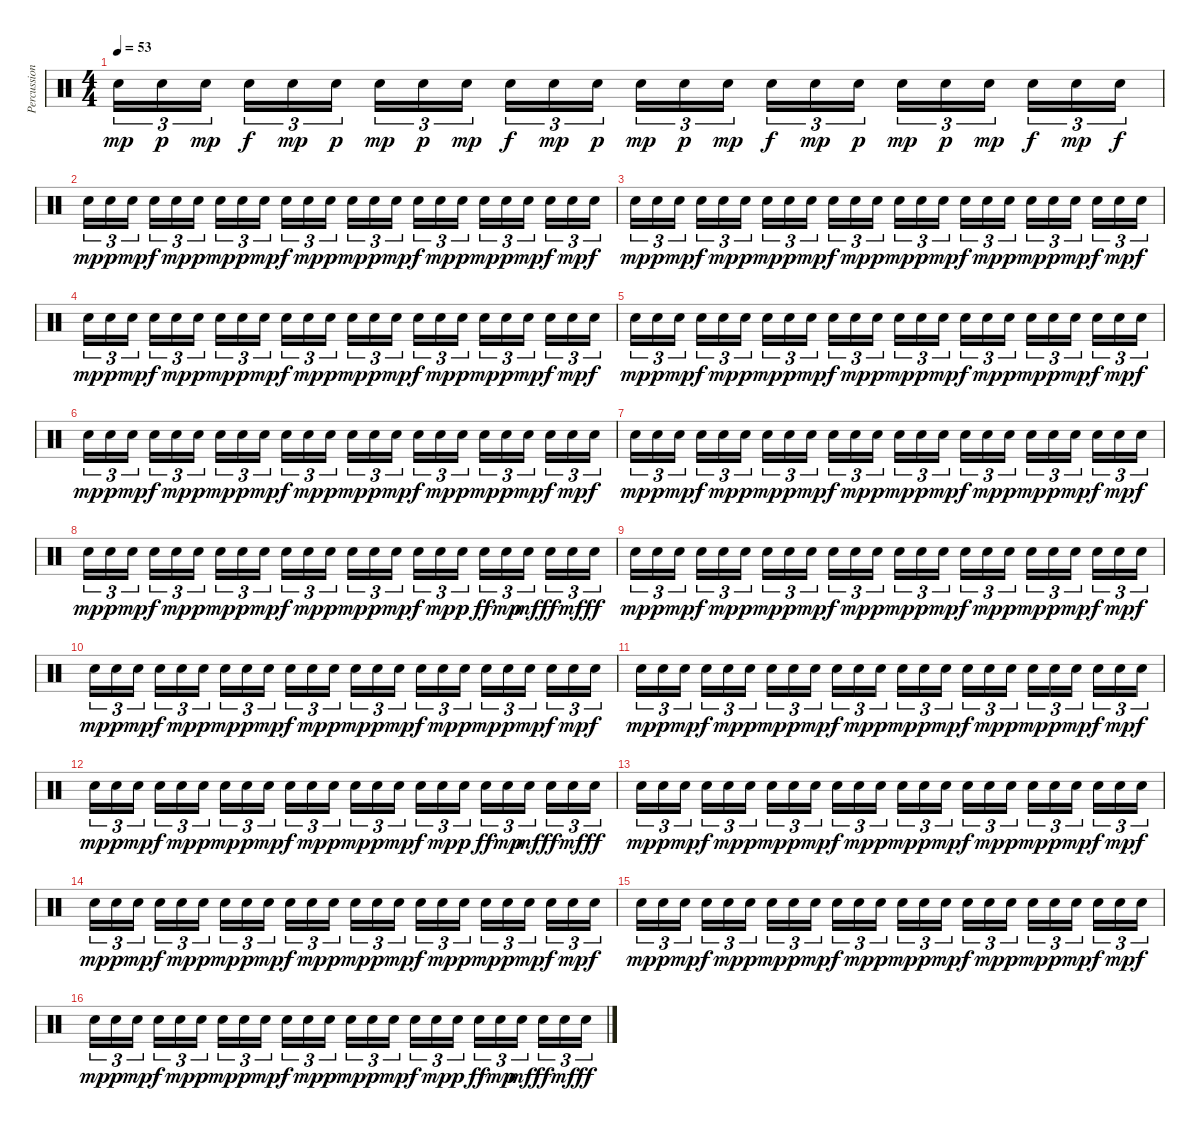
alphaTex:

\track ("Percussions" "Percussion") {instrument percussion}
\staff {score}
\articulation defaults
\ts (4 4)
\tempo 53
\clef neutral
\ks c "Snare (hit) 2".16{tu (3 2) dy mp} "Snare (hit) 2".16{tu (3 2) dy p} "Snare (hit) 2".16{tu (3 2) dy mp} "Snare (hit) 2".16{tu (3 2) dy f} "Snare (hit) 2".16{tu (3 2) dy mp} "Snare (hit) 2".16{tu (3 2) dy p} "Snare (hit) 2".16{tu (3 2) dy mp} "Snare (hit) 2".16{tu (3 2) dy p} "Snare (hit) 2".16{tu (3 2) dy mp} "Snare (hit) 2".16{tu (3 2) dy f} "Snare (hit) 2".16{tu (3 2) dy mp} "Snare (hit) 2".16{tu (3 2) dy p} "Snare (hit) 2".16{tu (3 2) dy mp} "Snare (hit) 2".16{tu (3 2) dy p} "Snare (hit) 2".16{tu (3 2) dy mp} "Snare (hit) 2".16{tu (3 2) dy f} "Snare (hit) 2".16{tu (3 2) dy mp} "Snare (hit) 2".16{tu (3 2) dy p} "Snare (hit) 2".16{tu (3 2) dy mp} "Snare (hit) 2".16{tu (3 2) dy p} "Snare (hit) 2".16{tu (3 2) dy mp} "Snare (hit) 2".16{tu (3 2) dy f} "Snare (hit) 2".16{tu (3 2) dy mp} "Snare (hit) 2".16{tu (3 2) dy f}
|
"Snare (hit) 2".16{tu (3 2) dy mp} "Snare (hit) 2".16{tu (3 2) dy p} "Snare (hit) 2".16{tu (3 2) dy mp} "Snare (hit) 2".16{tu (3 2) dy f} "Snare (hit) 2".16{tu (3 2) dy mp} "Snare (hit) 2".16{tu (3 2) dy p} "Snare (hit) 2".16{tu (3 2) dy mp} "Snare (hit) 2".16{tu (3 2) dy p} "Snare (hit) 2".16{tu (3 2) dy mp} "Snare (hit) 2".16{tu (3 2) dy f} "Snare (hit) 2".16{tu (3 2) dy mp} "Snare (hit) 2".16{tu (3 2) dy p} "Snare (hit) 2".16{tu (3 2) dy mp} "Snare (hit) 2".16{tu (3 2) dy p} "Snare (hit) 2".16{tu (3 2) dy mp} "Snare (hit) 2".16{tu (3 2) dy f} "Snare (hit) 2".16{tu (3 2) dy mp} "Snare (hit) 2".16{tu (3 2) dy p} "Snare (hit) 2".16{tu (3 2) dy mp} "Snare (hit) 2".16{tu (3 2) dy p} "Snare (hit) 2".16{tu (3 2) dy mp} "Snare (hit) 2".16{tu (3 2) dy f} "Snare (hit) 2".16{tu (3 2) dy mp} "Snare (hit) 2".16{tu (3 2) dy f} |
"Snare (hit) 2".16{tu (3 2) dy mp} "Snare (hit) 2".16{tu (3 2) dy p} "Snare (hit) 2".16{tu (3 2) dy mp} "Snare (hit) 2".16{tu (3 2) dy f} "Snare (hit) 2".16{tu (3 2) dy mp} "Snare (hit) 2".16{tu (3 2) dy p} "Snare (hit) 2".16{tu (3 2) dy mp} "Snare (hit) 2".16{tu (3 2) dy p} "Snare (hit) 2".16{tu (3 2) dy mp} "Snare (hit) 2".16{tu (3 2) dy f} "Snare (hit) 2".16{tu (3 2) dy mp} "Snare (hit) 2".16{tu (3 2) dy p} "Snare (hit) 2".16{tu (3 2) dy mp} "Snare (hit) 2".16{tu (3 2) dy p} "Snare (hit) 2".16{tu (3 2) dy mp} "Snare (hit) 2".16{tu (3 2) dy f} "Snare (hit) 2".16{tu (3 2) dy mp} "Snare (hit) 2".16{tu (3 2) dy p} "Snare (hit) 2".16{tu (3 2) dy mp} "Snare (hit) 2".16{tu (3 2) dy p} "Snare (hit) 2".16{tu (3 2) dy mp} "Snare (hit) 2".16{tu (3 2) dy f} "Snare (hit) 2".16{tu (3 2) dy mp} "Snare (hit) 2".16{tu (3 2) dy f} |
"Snare (hit) 2".16{tu (3 2) dy mp} "Snare (hit) 2".16{tu (3 2) dy p} "Snare (hit) 2".16{tu (3 2) dy mp} "Snare (hit) 2".16{tu (3 2) dy f} "Snare (hit) 2".16{tu (3 2) dy mp} "Snare (hit) 2".16{tu (3 2) dy p} "Snare (hit) 2".16{tu (3 2) dy mp} "Snare (hit) 2".16{tu (3 2) dy p} "Snare (hit) 2".16{tu (3 2) dy mp} "Snare (hit) 2".16{tu (3 2) dy f} "Snare (hit) 2".16{tu (3 2) dy mp} "Snare (hit) 2".16{tu (3 2) dy p} "Snare (hit) 2".16{tu (3 2) dy mp} "Snare (hit) 2".16{tu (3 2) dy p} "Snare (hit) 2".16{tu (3 2) dy mp} "Snare (hit) 2".16{tu (3 2) dy f} "Snare (hit) 2".16{tu (3 2) dy mp} "Snare (hit) 2".16{tu (3 2) dy p} "Snare (hit) 2".16{tu (3 2) dy mp} "Snare (hit) 2".16{tu (3 2) dy p} "Snare (hit) 2".16{tu (3 2) dy mp} "Snare (hit) 2".16{tu (3 2) dy f} "Snare (hit) 2".16{tu (3 2) dy mp} "Snare (hit) 2".16{tu (3 2) dy f} |
"Snare (hit) 2".16{tu (3 2) dy mp} "Snare (hit) 2".16{tu (3 2) dy p} "Snare (hit) 2".16{tu (3 2) dy mp} "Snare (hit) 2".16{tu (3 2) dy f} "Snare (hit) 2".16{tu (3 2) dy mp} "Snare (hit) 2".16{tu (3 2) dy p} "Snare (hit) 2".16{tu (3 2) dy mp} "Snare (hit) 2".16{tu (3 2) dy p} "Snare (hit) 2".16{tu (3 2) dy mp} "Snare (hit) 2".16{tu (3 2) dy f} "Snare (hit) 2".16{tu (3 2) dy mp} "Snare (hit) 2".16{tu (3 2) dy p} "Snare (hit) 2".16{tu (3 2) dy mp} "Snare (hit) 2".16{tu (3 2) dy p} "Snare (hit) 2".16{tu (3 2) dy mp} "Snare (hit) 2".16{tu (3 2) dy f} "Snare (hit) 2".16{tu (3 2) dy mp} "Snare (hit) 2".16{tu (3 2) dy p} "Snare (hit) 2".16{tu (3 2) dy mp} "Snare (hit) 2".16{tu (3 2) dy p} "Snare (hit) 2".16{tu (3 2) dy mp} "Snare (hit) 2".16{tu (3 2) dy f} "Snare (hit) 2".16{tu (3 2) dy mp} "Snare (hit) 2".16{tu (3 2) dy f} |
"Snare (hit) 2".16{tu (3 2) dy mp} "Snare (hit) 2".16{tu (3 2) dy p} "Snare (hit) 2".16{tu (3 2) dy mp} "Snare (hit) 2".16{tu (3 2) dy f} "Snare (hit) 2".16{tu (3 2) dy mp} "Snare (hit) 2".16{tu (3 2) dy p} "Snare (hit) 2".16{tu (3 2) dy mp} "Snare (hit) 2".16{tu (3 2) dy p} "Snare (hit) 2".16{tu (3 2) dy mp} "Snare (hit) 2".16{tu (3 2) dy f} "Snare (hit) 2".16{tu (3 2) dy mp} "Snare (hit) 2".16{tu (3 2) dy p} "Snare (hit) 2".16{tu (3 2) dy mp} "Snare (hit) 2".16{tu (3 2) dy p} "Snare (hit) 2".16{tu (3 2) dy mp} "Snare (hit) 2".16{tu (3 2) dy f} "Snare (hit) 2".16{tu (3 2) dy mp} "Snare (hit) 2".16{tu (3 2) dy p} "Snare (hit) 2".16{tu (3 2) dy mp} "Snare (hit) 2".16{tu (3 2) dy p} "Snare (hit) 2".16{tu (3 2) dy mp} "Snare (hit) 2".16{tu (3 2) dy f} "Snare (hit) 2".16{tu (3 2) dy mp} "Snare (hit) 2".16{tu (3 2) dy f} |
"Snare (hit) 2".16{tu (3 2) dy mp} "Snare (hit) 2".16{tu (3 2) dy p} "Snare (hit) 2".16{tu (3 2) dy mp} "Snare (hit) 2".16{tu (3 2) dy f} "Snare (hit) 2".16{tu (3 2) dy mp} "Snare (hit) 2".16{tu (3 2) dy p} "Snare (hit) 2".16{tu (3 2) dy mp} "Snare (hit) 2".16{tu (3 2) dy p} "Snare (hit) 2".16{tu (3 2) dy mp} "Snare (hit) 2".16{tu (3 2) dy f} "Snare (hit) 2".16{tu (3 2) dy mp} "Snare (hit) 2".16{tu (3 2) dy p} "Snare (hit) 2".16{tu (3 2) dy mp} "Snare (hit) 2".16{tu (3 2) dy p} "Snare (hit) 2".16{tu (3 2) dy mp} "Snare (hit) 2".16{tu (3 2) dy f} "Snare (hit) 2".16{tu (3 2) dy mp} "Snare (hit) 2".16{tu (3 2) dy p} "Snare (hit) 2".16{tu (3 2) dy mp} "Snare (hit) 2".16{tu (3 2) dy p} "Snare (hit) 2".16{tu (3 2) dy mp} "Snare (hit) 2".16{tu (3 2) dy f} "Snare (hit) 2".16{tu (3 2) dy mp} "Snare (hit) 2".16{tu (3 2) dy f} |
"Snare (hit) 2".16{tu (3 2) dy mp} "Snare (hit) 2".16{tu (3 2) dy p} "Snare (hit) 2".16{tu (3 2) dy mp} "Snare (hit) 2".16{tu (3 2) dy f} "Snare (hit) 2".16{tu (3 2) dy mp} "Snare (hit) 2".16{tu (3 2) dy p} "Snare (hit) 2".16{tu (3 2) dy mp} "Snare (hit) 2".16{tu (3 2) dy p} "Snare (hit) 2".16{tu (3 2) dy mp} "Snare (hit) 2".16{tu (3 2) dy f} "Snare (hit) 2".16{tu (3 2) dy mp} "Snare (hit) 2".16{tu (3 2) dy p} "Snare (hit) 2".16{tu (3 2) dy mp} "Snare (hit) 2".16{tu (3 2) dy p} "Snare (hit) 2".16{tu (3 2) dy mp} "Snare (hit) 2".16{tu (3 2) dy f} "Snare (hit) 2".16{tu (3 2) dy mp} "Snare (hit) 2".16{tu (3 2) dy p} "Snare (hit) 2".16{tu (3 2) dy ff} "Snare (hit) 2".16{tu (3 2) dy mp} "Snare (hit) 2".16{tu (3 2) dy mf} "Snare (hit) 2".16{tu (3 2) dy ff} "Snare (hit) 2".16{tu (3 2) dy mf} "Snare (hit) 2".16{tu (3 2) dy ff} |
"Snare (hit) 2".16{tu (3 2) dy mp} "Snare (hit) 2".16{tu (3 2) dy p} "Snare (hit) 2".16{tu (3 2) dy mp} "Snare (hit) 2".16{tu (3 2) dy f} "Snare (hit) 2".16{tu (3 2) dy mp} "Snare (hit) 2".16{tu (3 2) dy p} "Snare (hit) 2".16{tu (3 2) dy mp} "Snare (hit) 2".16{tu (3 2) dy p} "Snare (hit) 2".16{tu (3 2) dy mp} "Snare (hit) 2".16{tu (3 2) dy f} "Snare (hit) 2".16{tu (3 2) dy mp} "Snare (hit) 2".16{tu (3 2) dy p} "Snare (hit) 2".16{tu (3 2) dy mp} "Snare (hit) 2".16{tu (3 2) dy p} "Snare (hit) 2".16{tu (3 2) dy mp} "Snare (hit) 2".16{tu (3 2) dy f} "Snare (hit) 2".16{tu (3 2) dy mp} "Snare (hit) 2".16{tu (3 2) dy p} "Snare (hit) 2".16{tu (3 2) dy mp} "Snare (hit) 2".16{tu (3 2) dy p} "Snare (hit) 2".16{tu (3 2) dy mp} "Snare (hit) 2".16{tu (3 2) dy f} "Snare (hit) 2".16{tu (3 2) dy mp} "Snare (hit) 2".16{tu (3 2) dy f} |
"Snare (hit) 2".16{tu (3 2) dy mp} "Snare (hit) 2".16{tu (3 2) dy p} "Snare (hit) 2".16{tu (3 2) dy mp} "Snare (hit) 2".16{tu (3 2) dy f} "Snare (hit) 2".16{tu (3 2) dy mp} "Snare (hit) 2".16{tu (3 2) dy p} "Snare (hit) 2".16{tu (3 2) dy mp} "Snare (hit) 2".16{tu (3 2) dy p} "Snare (hit) 2".16{tu (3 2) dy mp} "Snare (hit) 2".16{tu (3 2) dy f} "Snare (hit) 2".16{tu (3 2) dy mp} "Snare (hit) 2".16{tu (3 2) dy p} "Snare (hit) 2".16{tu (3 2) dy mp} "Snare (hit) 2".16{tu (3 2) dy p} "Snare (hit) 2".16{tu (3 2) dy mp} "Snare (hit) 2".16{tu (3 2) dy f} "Snare (hit) 2".16{tu (3 2) dy mp} "Snare (hit) 2".16{tu (3 2) dy p} "Snare (hit) 2".16{tu (3 2) dy mp} "Snare (hit) 2".16{tu (3 2) dy p} "Snare (hit) 2".16{tu (3 2) dy mp} "Snare (hit) 2".16{tu (3 2) dy f} "Snare (hit) 2".16{tu (3 2) dy mp} "Snare (hit) 2".16{tu (3 2) dy f} |
"Snare (hit) 2".16{tu (3 2) dy mp} "Snare (hit) 2".16{tu (3 2) dy p} "Snare (hit) 2".16{tu (3 2) dy mp} "Snare (hit) 2".16{tu (3 2) dy f} "Snare (hit) 2".16{tu (3 2) dy mp} "Snare (hit) 2".16{tu (3 2) dy p} "Snare (hit) 2".16{tu (3 2) dy mp} "Snare (hit) 2".16{tu (3 2) dy p} "Snare (hit) 2".16{tu (3 2) dy mp} "Snare (hit) 2".16{tu (3 2) dy f} "Snare (hit) 2".16{tu (3 2) dy mp} "Snare (hit) 2".16{tu (3 2) dy p} "Snare (hit) 2".16{tu (3 2) dy mp} "Snare (hit) 2".16{tu (3 2) dy p} "Snare (hit) 2".16{tu (3 2) dy mp} "Snare (hit) 2".16{tu (3 2) dy f} "Snare (hit) 2".16{tu (3 2) dy mp} "Snare (hit) 2".16{tu (3 2) dy p} "Snare (hit) 2".16{tu (3 2) dy mp} "Snare (hit) 2".16{tu (3 2) dy p} "Snare (hit) 2".16{tu (3 2) dy mp} "Snare (hit) 2".16{tu (3 2) dy f} "Snare (hit) 2".16{tu (3 2) dy mp} "Snare (hit) 2".16{tu (3 2) dy f} |
"Snare (hit) 2".16{tu (3 2) dy mp} "Snare (hit) 2".16{tu (3 2) dy p} "Snare (hit) 2".16{tu (3 2) dy mp} "Snare (hit) 2".16{tu (3 2) dy f} "Snare (hit) 2".16{tu (3 2) dy mp} "Snare (hit) 2".16{tu (3 2) dy p} "Snare (hit) 2".16{tu (3 2) dy mp} "Snare (hit) 2".16{tu (3 2) dy p} "Snare (hit) 2".16{tu (3 2) dy mp} "Snare (hit) 2".16{tu (3 2) dy f} "Snare (hit) 2".16{tu (3 2) dy mp} "Snare (hit) 2".16{tu (3 2) dy p} "Snare (hit) 2".16{tu (3 2) dy mp} "Snare (hit) 2".16{tu (3 2) dy p} "Snare (hit) 2".16{tu (3 2) dy mp} "Snare (hit) 2".16{tu (3 2) dy f} "Snare (hit) 2".16{tu (3 2) dy mp} "Snare (hit) 2".16{tu (3 2) dy p} "Snare (hit) 2".16{tu (3 2) dy ff} "Snare (hit) 2".16{tu (3 2) dy mp} "Snare (hit) 2".16{tu (3 2) dy mf} "Snare (hit) 2".16{tu (3 2) dy ff} "Snare (hit) 2".16{tu (3 2) dy mf} "Snare (hit) 2".16{tu (3 2) dy ff} |
"Snare (hit) 2".16{tu (3 2) dy mp} "Snare (hit) 2".16{tu (3 2) dy p} "Snare (hit) 2".16{tu (3 2) dy mp} "Snare (hit) 2".16{tu (3 2) dy f} "Snare (hit) 2".16{tu (3 2) dy mp} "Snare (hit) 2".16{tu (3 2) dy p} "Snare (hit) 2".16{tu (3 2) dy mp} "Snare (hit) 2".16{tu (3 2) dy p} "Snare (hit) 2".16{tu (3 2) dy mp} "Snare (hit) 2".16{tu (3 2) dy f} "Snare (hit) 2".16{tu (3 2) dy mp} "Snare (hit) 2".16{tu (3 2) dy p} "Snare (hit) 2".16{tu (3 2) dy mp} "Snare (hit) 2".16{tu (3 2) dy p} "Snare (hit) 2".16{tu (3 2) dy mp} "Snare (hit) 2".16{tu (3 2) dy f} "Snare (hit) 2".16{tu (3 2) dy mp} "Snare (hit) 2".16{tu (3 2) dy p} "Snare (hit) 2".16{tu (3 2) dy mp} "Snare (hit) 2".16{tu (3 2) dy p} "Snare (hit) 2".16{tu (3 2) dy mp} "Snare (hit) 2".16{tu (3 2) dy f} "Snare (hit) 2".16{tu (3 2) dy mp} "Snare (hit) 2".16{tu (3 2) dy f} |
"Snare (hit) 2".16{tu (3 2) dy mp} "Snare (hit) 2".16{tu (3 2) dy p} "Snare (hit) 2".16{tu (3 2) dy mp} "Snare (hit) 2".16{tu (3 2) dy f} "Snare (hit) 2".16{tu (3 2) dy mp} "Snare (hit) 2".16{tu (3 2) dy p} "Snare (hit) 2".16{tu (3 2) dy mp} "Snare (hit) 2".16{tu (3 2) dy p} "Snare (hit) 2".16{tu (3 2) dy mp} "Snare (hit) 2".16{tu (3 2) dy f} "Snare (hit) 2".16{tu (3 2) dy mp} "Snare (hit) 2".16{tu (3 2) dy p} "Snare (hit) 2".16{tu (3 2) dy mp} "Snare (hit) 2".16{tu (3 2) dy p} "Snare (hit) 2".16{tu (3 2) dy mp} "Snare (hit) 2".16{tu (3 2) dy f} "Snare (hit) 2".16{tu (3 2) dy mp} "Snare (hit) 2".16{tu (3 2) dy p} "Snare (hit) 2".16{tu (3 2) dy mp} "Snare (hit) 2".16{tu (3 2) dy p} "Snare (hit) 2".16{tu (3 2) dy mp} "Snare (hit) 2".16{tu (3 2) dy f} "Snare (hit) 2".16{tu (3 2) dy mp} "Snare (hit) 2".16{tu (3 2) dy f} |
"Snare (hit) 2".16{tu (3 2) dy mp} "Snare (hit) 2".16{tu (3 2) dy p} "Snare (hit) 2".16{tu (3 2) dy mp} "Snare (hit) 2".16{tu (3 2) dy f} "Snare (hit) 2".16{tu (3 2) dy mp} "Snare (hit) 2".16{tu (3 2) dy p} "Snare (hit) 2".16{tu (3 2) dy mp} "Snare (hit) 2".16{tu (3 2) dy p} "Snare (hit) 2".16{tu (3 2) dy mp} "Snare (hit) 2".16{tu (3 2) dy f} "Snare (hit) 2".16{tu (3 2) dy mp} "Snare (hit) 2".16{tu (3 2) dy p} "Snare (hit) 2".16{tu (3 2) dy mp} "Snare (hit) 2".16{tu (3 2) dy p} "Snare (hit) 2".16{tu (3 2) dy mp} "Snare (hit) 2".16{tu (3 2) dy f} "Snare (hit) 2".16{tu (3 2) dy mp} "Snare (hit) 2".16{tu (3 2) dy p} "Snare (hit) 2".16{tu (3 2) dy mp} "Snare (hit) 2".16{tu (3 2) dy p} "Snare (hit) 2".16{tu (3 2) dy mp} "Snare (hit) 2".16{tu (3 2) dy f} "Snare (hit) 2".16{tu (3 2) dy mp} "Snare (hit) 2".16{tu (3 2) dy f} |
"Snare (hit) 2".16{tu (3 2) dy mp} "Snare (hit) 2".16{tu (3 2) dy p} "Snare (hit) 2".16{tu (3 2) dy mp} "Snare (hit) 2".16{tu (3 2) dy f} "Snare (hit) 2".16{tu (3 2) dy mp} "Snare (hit) 2".16{tu (3 2) dy p} "Snare (hit) 2".16{tu (3 2) dy mp} "Snare (hit) 2".16{tu (3 2) dy p} "Snare (hit) 2".16{tu (3 2) dy mp} "Snare (hit) 2".16{tu (3 2) dy f} "Snare (hit) 2".16{tu (3 2) dy mp} "Snare (hit) 2".16{tu (3 2) dy p} "Snare (hit) 2".16{tu (3 2) dy mp} "Snare (hit) 2".16{tu (3 2) dy p} "Snare (hit) 2".16{tu (3 2) dy mp} "Snare (hit) 2".16{tu (3 2) dy f} "Snare (hit) 2".16{tu (3 2) dy mp} "Snare (hit) 2".16{tu (3 2) dy p} "Snare (hit) 2".16{tu (3 2) dy ff} "Snare (hit) 2".16{tu (3 2) dy mp} "Snare (hit) 2".16{tu (3 2) dy mf} "Snare (hit) 2".16{tu (3 2) dy ff} "Snare (hit) 2".16{tu (3 2) dy mf} "Snare (hit) 2".16{tu (3 2) dy ff}
